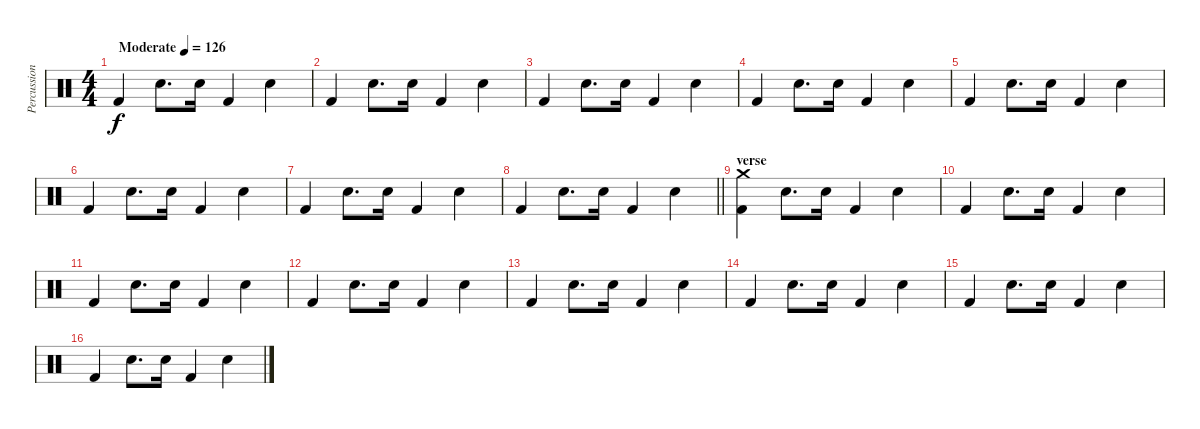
\track ("Percussion" "Percussion") {instrument percussion}
\staff {score}
\articulation defaults
\ts (4 4)
\tempo (126 "Moderate")
\clef neutral
\ks c "Kick (hit) 2".4{dy f} "Electric Snare (hit)".8{d} "Electric Snare (hit)".16 "Kick (hit) 2".4 "Electric Snare (hit)".4
|
"Kick (hit) 2".4 "Electric Snare (hit)".8{d} "Electric Snare (hit)".16 "Kick (hit) 2".4 "Electric Snare (hit)".4 |
"Kick (hit) 2".4 "Electric Snare (hit)".8{d} "Electric Snare (hit)".16 "Kick (hit) 2".4 "Electric Snare (hit)".4 |
"Kick (hit) 2".4 "Electric Snare (hit)".8{d} "Electric Snare (hit)".16 "Kick (hit) 2".4 "Electric Snare (hit)".4 |
"Kick (hit) 2".4 "Electric Snare (hit)".8{d} "Electric Snare (hit)".16 "Kick (hit) 2".4 "Electric Snare (hit)".4 |
"Kick (hit) 2".4 "Electric Snare (hit)".8{d} "Electric Snare (hit)".16 "Kick (hit) 2".4 "Electric Snare (hit)".4 |
"Kick (hit) 2".4 "Electric Snare (hit)".8{d} "Electric Snare (hit)".16 "Kick (hit) 2".4 "Electric Snare (hit)".4 |
\barLineRight lightlight "Kick (hit) 2".4 "Electric Snare (hit)".8{d} "Electric Snare (hit)".16 "Kick (hit) 2".4 "Electric Snare (hit)".4
|
\section ("" "verse")
("Crash medium (hit)" "Kick (hit) 2").4 "Electric Snare (hit)".8{d} "Electric Snare (hit)".16 "Kick (hit) 2".4 "Electric Snare (hit)".4 |
"Kick (hit) 2".4 "Electric Snare (hit)".8{d} "Electric Snare (hit)".16 "Kick (hit) 2".4 "Electric Snare (hit)".4 |
"Kick (hit) 2".4 "Electric Snare (hit)".8{d} "Electric Snare (hit)".16 "Kick (hit) 2".4 "Electric Snare (hit)".4 |
"Kick (hit) 2".4 "Electric Snare (hit)".8{d} "Electric Snare (hit)".16 "Kick (hit) 2".4 "Electric Snare (hit)".4 |
"Kick (hit) 2".4 "Electric Snare (hit)".8{d} "Electric Snare (hit)".16 "Kick (hit) 2".4 "Electric Snare (hit)".4 |
"Kick (hit) 2".4 "Electric Snare (hit)".8{d} "Electric Snare (hit)".16 "Kick (hit) 2".4 "Electric Snare (hit)".4 |
"Kick (hit) 2".4 "Electric Snare (hit)".8{d} "Electric Snare (hit)".16 "Kick (hit) 2".4 "Electric Snare (hit)".4 |
"Kick (hit) 2".4 "Electric Snare (hit)".8{d} "Electric Snare (hit)".16 "Kick (hit) 2".4 "Electric Snare (hit)".4
